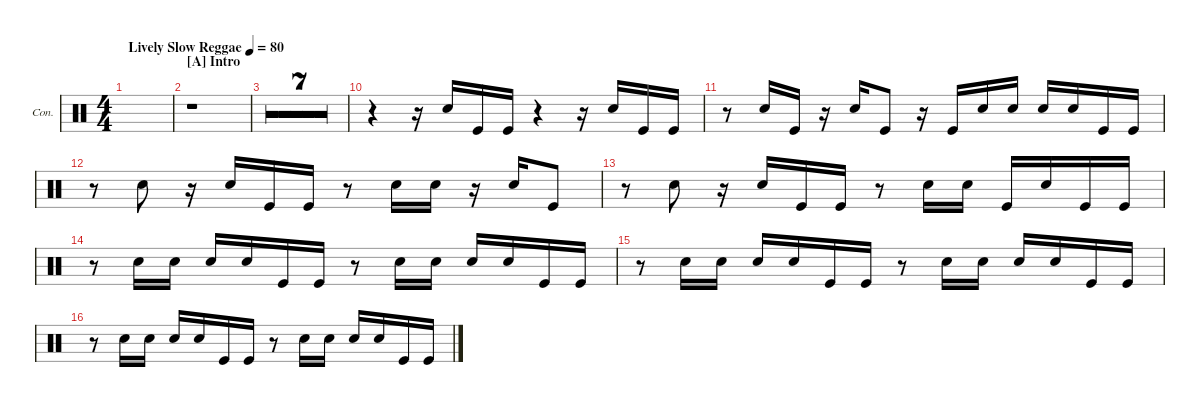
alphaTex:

\defaultSystemsLayout 4
\hideDynamics
\bracketExtendMode groupsimilarinstruments
\firstSystemTrackNameOrientation horizontal
\otherSystemsTrackNameOrientation horizontal
\track ("Congas" "Con.") {multiBarRest instrument percussion}
\staff {score}
\articulation defaults
\ts (4 4)
\ac
\tempo (80 "Lively Slow Reggae")
\clef neutral
\ks c
|
\section ("A" "Intro")
r.1 |
r.1 |
r.1 |
r.1 |
r.1 |
r.1 |
r.1 |
r.1 |
r.4 r.16 "Snare (hit) 2".16 "Kick (hit)".16 "Kick (hit)".16 r.4 r.16 "Snare (hit) 2".16 "Kick (hit)".16 "Kick (hit)".16 |
r.8 "Snare (hit) 2".16 "Kick (hit)".16 r.16 "Snare (hit) 2".16 "Kick (hit)".8 r.16 "Kick (hit)".16 "Snare (hit) 2".16 "Snare (hit) 2".16 "Snare (hit) 2".16 "Snare (hit) 2".16 "Kick (hit)".16 "Kick (hit)".16 |
r.8 "Snare (hit) 2".8 r.16 "Snare (hit) 2".16 "Kick (hit)".16 "Kick (hit)".16 r.8 "Snare (hit) 2".16 "Snare (hit) 2".16 r.16 "Snare (hit) 2".16 "Kick (hit)".8 |
r.8 "Snare (hit) 2".8 r.16 "Snare (hit) 2".16 "Kick (hit)".16 "Kick (hit)".16 r.8 "Snare (hit) 2".16 "Snare (hit) 2".16 "Kick (hit)".16 "Snare (hit) 2".16 "Kick (hit)".16 "Kick (hit)".16 |
r.8 "Snare (hit) 2".16 "Snare (hit) 2".16 "Snare (hit) 2".16 "Snare (hit) 2".16 "Kick (hit)".16 "Kick (hit)".16 r.8 "Snare (hit) 2".16 "Snare (hit) 2".16 "Snare (hit) 2".16 "Snare (hit) 2".16 "Kick (hit)".16 "Kick (hit)".16 |
r.8 "Snare (hit) 2".16 "Snare (hit) 2".16 "Snare (hit) 2".16 "Snare (hit) 2".16 "Kick (hit)".16 "Kick (hit)".16 r.8 "Snare (hit) 2".16 "Snare (hit) 2".16 "Snare (hit) 2".16 "Snare (hit) 2".16 "Kick (hit)".16 "Kick (hit)".16 |
r.8 "Snare (hit) 2".16 "Snare (hit) 2".16 "Snare (hit) 2".16 "Snare (hit) 2".16 "Kick (hit)".16 "Kick (hit)".16 r.8 "Snare (hit) 2".16 "Snare (hit) 2".16 "Snare (hit) 2".16 "Snare (hit) 2".16 "Kick (hit)".16 "Kick (hit)".16
